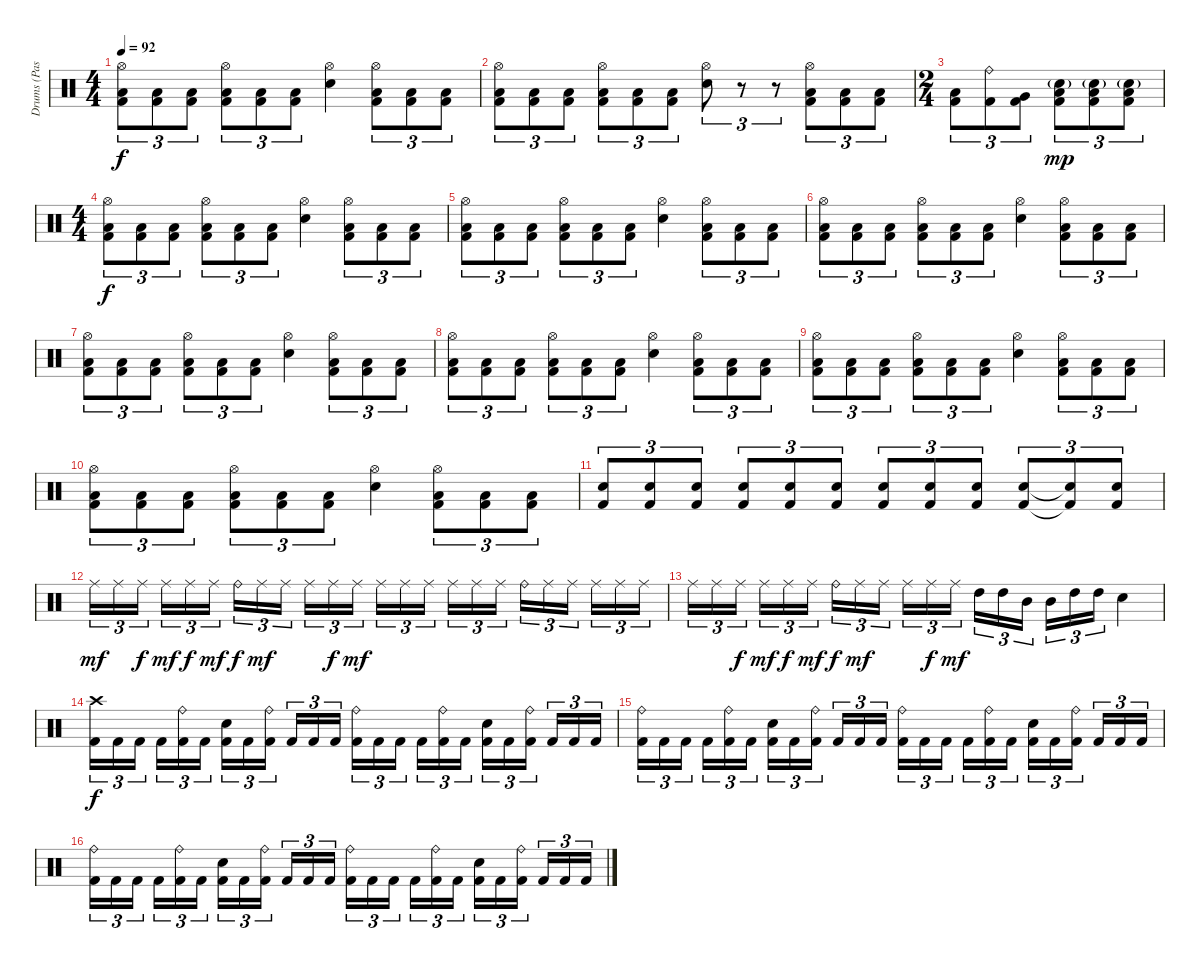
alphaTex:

\track ("Drums (Pasanen)" "Drums (Pas") {instrument percussion}
\staff {score}
\articulation defaults
\ts (4 4)
\tempo 92
\clef neutral
\ks c
("Hi-Hat (open)" "Low Tom (hit)" "Kick (hit) 2").8{tu (3 2) dy f} ("Low Tom (hit)" "Kick (hit) 2").8{tu (3 2)} ("Low Tom (hit)" "Kick (hit) 2").8{tu (3 2)} ("Hi-Hat (open)" "Low Tom (hit)" "Kick (hit) 2").8{tu (3 2)} ("Low Tom (hit)" "Kick (hit) 2").8{tu (3 2)} ("Low Tom (hit)" "Kick (hit) 2").8{tu (3 2)} ("Hi-Hat (open)" "Electric Snare (hit)").4 ("Hi-Hat (open)" "Low Tom (hit)" "Kick (hit) 2").8{tu (3 2)} ("Low Tom (hit)" "Kick (hit) 2").8{tu (3 2)} ("Low Tom (hit)" "Kick (hit) 2").8{tu (3 2)} |
("Hi-Hat (open)" "Low Tom (hit)" "Kick (hit) 2").8{tu (3 2)} ("Low Tom (hit)" "Kick (hit) 2").8{tu (3 2)} ("Low Tom (hit)" "Kick (hit) 2").8{tu (3 2)} ("Hi-Hat (open)" "Low Tom (hit)" "Kick (hit) 2").8{tu (3 2)} ("Low Tom (hit)" "Kick (hit) 2").8{tu (3 2)} ("Low Tom (hit)" "Kick (hit) 2").8{tu (3 2)} ("Hi-Hat (open)" "Electric Snare (hit)").8{tu (3 2)} r.8{tu (3 2)} r.8{tu (3 2)} ("Hi-Hat (open)" "Low Tom (hit)" "Kick (hit) 2").8{tu (3 2)} ("Low Tom (hit)" "Kick (hit) 2").8{tu (3 2)} ("Low Tom (hit)" "Kick (hit) 2").8{tu (3 2)} |
\ts (2 4)
("Low Tom (hit)" "Kick (hit) 2").8{tu (3 2)} ("Ride (bell)" "Kick (hit) 2").8{tu (3 2)} ("Very Low Tom (hit)" "Kick (hit) 2").8{tu (3 2)} ("Low Tom (hit)" "Electric Snare (hit)"{g} "Kick (hit) 2").8{tu (3 2) dy mp} ("Low Tom (hit)" "Electric Snare (hit)"{g} "Kick (hit) 2").8{tu (3 2)} ("Low Tom (hit)" "Electric Snare (hit)"{g} "Kick (hit) 2").8{tu (3 2)} |
\ts (4 4)
("Hi-Hat (open)" "Low Tom (hit)" "Kick (hit) 2").8{tu (3 2) dy f} ("Low Tom (hit)" "Kick (hit) 2").8{tu (3 2)} ("Low Tom (hit)" "Kick (hit) 2").8{tu (3 2)} ("Hi-Hat (open)" "Low Tom (hit)" "Kick (hit) 2").8{tu (3 2)} ("Low Tom (hit)" "Kick (hit) 2").8{tu (3 2)} ("Low Tom (hit)" "Kick (hit) 2").8{tu (3 2)} ("Hi-Hat (open)" "Electric Snare (hit)").4 ("Hi-Hat (open)" "Low Tom (hit)" "Kick (hit) 2").8{tu (3 2)} ("Low Tom (hit)" "Kick (hit) 2").8{tu (3 2)} ("Low Tom (hit)" "Kick (hit) 2").8{tu (3 2)} |
("Hi-Hat (open)" "Low Tom (hit)" "Kick (hit) 2").8{tu (3 2)} ("Low Tom (hit)" "Kick (hit) 2").8{tu (3 2)} ("Low Tom (hit)" "Kick (hit) 2").8{tu (3 2)} ("Hi-Hat (open)" "Low Tom (hit)" "Kick (hit) 2").8{tu (3 2)} ("Low Tom (hit)" "Kick (hit) 2").8{tu (3 2)} ("Low Tom (hit)" "Kick (hit) 2").8{tu (3 2)} ("Hi-Hat (open)" "Electric Snare (hit)").4 ("Hi-Hat (open)" "Low Tom (hit)" "Kick (hit) 2").8{tu (3 2)} ("Low Tom (hit)" "Kick (hit) 2").8{tu (3 2)} ("Low Tom (hit)" "Kick (hit) 2").8{tu (3 2)} |
("Hi-Hat (open)" "Low Tom (hit)" "Kick (hit) 2").8{tu (3 2)} ("Low Tom (hit)" "Kick (hit) 2").8{tu (3 2)} ("Low Tom (hit)" "Kick (hit) 2").8{tu (3 2)} ("Hi-Hat (open)" "Low Tom (hit)" "Kick (hit) 2").8{tu (3 2)} ("Low Tom (hit)" "Kick (hit) 2").8{tu (3 2)} ("Low Tom (hit)" "Kick (hit) 2").8{tu (3 2)} ("Hi-Hat (open)" "Electric Snare (hit)").4 ("Hi-Hat (open)" "Low Tom (hit)" "Kick (hit) 2").8{tu (3 2)} ("Low Tom (hit)" "Kick (hit) 2").8{tu (3 2)} ("Low Tom (hit)" "Kick (hit) 2").8{tu (3 2)} |
("Hi-Hat (open)" "Low Tom (hit)" "Kick (hit) 2").8{tu (3 2)} ("Low Tom (hit)" "Kick (hit) 2").8{tu (3 2)} ("Low Tom (hit)" "Kick (hit) 2").8{tu (3 2)} ("Hi-Hat (open)" "Low Tom (hit)" "Kick (hit) 2").8{tu (3 2)} ("Low Tom (hit)" "Kick (hit) 2").8{tu (3 2)} ("Low Tom (hit)" "Kick (hit) 2").8{tu (3 2)} ("Hi-Hat (open)" "Electric Snare (hit)").4 ("Hi-Hat (open)" "Low Tom (hit)" "Kick (hit) 2").8{tu (3 2)} ("Low Tom (hit)" "Kick (hit) 2").8{tu (3 2)} ("Low Tom (hit)" "Kick (hit) 2").8{tu (3 2)} |
("Hi-Hat (open)" "Low Tom (hit)" "Kick (hit) 2").8{tu (3 2)} ("Low Tom (hit)" "Kick (hit) 2").8{tu (3 2)} ("Low Tom (hit)" "Kick (hit) 2").8{tu (3 2)} ("Hi-Hat (open)" "Low Tom (hit)" "Kick (hit) 2").8{tu (3 2)} ("Low Tom (hit)" "Kick (hit) 2").8{tu (3 2)} ("Low Tom (hit)" "Kick (hit) 2").8{tu (3 2)} ("Hi-Hat (open)" "Electric Snare (hit)").4 ("Hi-Hat (open)" "Low Tom (hit)" "Kick (hit) 2").8{tu (3 2)} ("Low Tom (hit)" "Kick (hit) 2").8{tu (3 2)} ("Low Tom (hit)" "Kick (hit) 2").8{tu (3 2)} |
("Hi-Hat (open)" "Low Tom (hit)" "Kick (hit) 2").8{tu (3 2)} ("Low Tom (hit)" "Kick (hit) 2").8{tu (3 2)} ("Low Tom (hit)" "Kick (hit) 2").8{tu (3 2)} ("Hi-Hat (open)" "Low Tom (hit)" "Kick (hit) 2").8{tu (3 2)} ("Low Tom (hit)" "Kick (hit) 2").8{tu (3 2)} ("Low Tom (hit)" "Kick (hit) 2").8{tu (3 2)} ("Hi-Hat (open)" "Electric Snare (hit)").4 ("Hi-Hat (open)" "Low Tom (hit)" "Kick (hit) 2").8{tu (3 2)} ("Low Tom (hit)" "Kick (hit) 2").8{tu (3 2)} ("Low Tom (hit)" "Kick (hit) 2").8{tu (3 2)} |
("Hi-Hat (open)" "Low Tom (hit)" "Kick (hit) 2").8{tu (3 2)} ("Low Tom (hit)" "Kick (hit) 2").8{tu (3 2)} ("Low Tom (hit)" "Kick (hit) 2").8{tu (3 2)} ("Hi-Hat (open)" "Low Tom (hit)" "Kick (hit) 2").8{tu (3 2)} ("Low Tom (hit)" "Kick (hit) 2").8{tu (3 2)} ("Low Tom (hit)" "Kick (hit) 2").8{tu (3 2)} ("Hi-Hat (open)" "Electric Snare (hit)").4 ("Hi-Hat (open)" "Low Tom (hit)" "Kick (hit) 2").8{tu (3 2)} ("Low Tom (hit)" "Kick (hit) 2").8{tu (3 2)} ("Low Tom (hit)" "Kick (hit) 2").8{tu (3 2)} |
("Electric Snare (hit)" "Kick (hit) 2").8{tu (3 2)} ("Electric Snare (hit)" "Kick (hit) 2").8{tu (3 2)} ("Electric Snare (hit)" "Kick (hit) 2").8{tu (3 2)} ("Electric Snare (hit)" "Kick (hit) 2").8{tu (3 2)} ("Electric Snare (hit)" "Kick (hit) 2").8{tu (3 2)} ("Electric Snare (hit)" "Kick (hit) 2").8{tu (3 2)} ("Electric Snare (hit)" "Kick (hit) 2").8{tu (3 2)} ("Electric Snare (hit)" "Kick (hit) 2").8{tu (3 2)} ("Electric Snare (hit)" "Kick (hit) 2").8{tu (3 2)} ("Electric Snare (hit)" "Kick (hit) 2").8{tu (3 2)} ("Snare (hit)"{t} "Kick (hit) 2"{t}).8{tu (3 2)} ("Electric Snare (hit)" "Kick (hit) 2").8{tu (3 2)} |
"Ride (middle)".16{tu (3 2) dy mf} "Ride (middle)".16{tu (3 2)} "Ride (middle)".16{tu (3 2) dy f beam splitsecondary} "Ride (middle)".16{tu (3 2) dy mf} "Ride (middle)".16{tu (3 2) dy f} "Ride (middle)".16{tu (3 2) dy mf} "Ride (bell)".16{tu (3 2) dy f} "Ride (middle)".16{tu (3 2) dy mf} "Ride (middle)".16{tu (3 2) beam splitsecondary} "Ride (middle)".16{tu (3 2)} "Ride (middle)".16{tu (3 2) dy f} "Ride (middle)".16{tu (3 2) dy mf} "Ride (middle)".16{tu (3 2)} "Ride (middle)".16{tu (3 2)} "Ride (middle)".16{tu (3 2) beam splitsecondary} "Ride (middle)".16{tu (3 2)} "Ride (middle)".16{tu (3 2)} "Ride (middle)".16{tu (3 2)} "Ride (bell)".16{tu (3 2)} "Ride (middle)".16{tu (3 2)} "Ride (middle)".16{tu (3 2) beam splitsecondary} "Ride (middle)".16{tu (3 2)} "Ride (middle)".16{tu (3 2)} "Ride (middle)".16{tu (3 2)} |
"Ride (middle)".16{tu (3 2)} "Ride (middle)".16{tu (3 2)} "Ride (middle)".16{tu (3 2) dy f beam splitsecondary} "Ride (middle)".16{tu (3 2) dy mf} "Ride (middle)".16{tu (3 2) dy f} "Ride (middle)".16{tu (3 2) dy mf} "Ride (bell)".16{tu (3 2) dy f} "Ride (middle)".16{tu (3 2) dy mf} "Ride (middle)".16{tu (3 2) beam splitsecondary} "Ride (middle)".16{tu (3 2)} "Ride (middle)".16{tu (3 2) dy f} "Ride (middle)".16{tu (3 2) dy mf} "High Tom (hit)".16{tu (3 2)} "High Tom (hit)".16{tu (3 2)} "Mid Tom (hit)".16{tu (3 2) beam splitsecondary} "Mid Tom (hit)".16{tu (3 2)} "High Tom (hit)".16{tu (3 2)} "High Tom (hit)".16{tu (3 2)} "Electric Snare (hit)".4 |
("Crash high (hit)" "Kick (hit) 2").16{tu (3 2) dy f} "Kick (hit) 2".16{tu (3 2)} "Kick (hit) 2".16{tu (3 2) beam splitsecondary} "Kick (hit) 2".16{tu (3 2)} ("Ride (bell)" "Kick (hit) 2").16{tu (3 2)} "Kick (hit) 2".16{tu (3 2)} ("Electric Snare (hit)" "Kick (hit) 2").16{tu (3 2)} "Kick (hit) 2".16{tu (3 2)} ("Ride (bell)" "Kick (hit) 2").16{tu (3 2) beam splitsecondary} "Kick (hit) 2".16{tu (3 2)} "Kick (hit) 2".16{tu (3 2)} "Kick (hit) 2".16{tu (3 2)} ("Ride (bell)" "Kick (hit) 2").16{tu (3 2)} "Kick (hit) 2".16{tu (3 2)} "Kick (hit) 2".16{tu (3 2) beam splitsecondary} "Kick (hit) 2".16{tu (3 2)} ("Ride (bell)" "Kick (hit) 2").16{tu (3 2)} "Kick (hit) 2".16{tu (3 2)} ("Electric Snare (hit)" "Kick (hit) 2").16{tu (3 2)} "Kick (hit) 2".16{tu (3 2)} ("Ride (bell)" "Kick (hit) 2").16{tu (3 2) beam splitsecondary} "Kick (hit) 2".16{tu (3 2)} "Kick (hit) 2".16{tu (3 2)} "Kick (hit) 2".16{tu (3 2)} |
("Ride (bell)" "Kick (hit) 2").16{tu (3 2)} "Kick (hit) 2".16{tu (3 2)} "Kick (hit) 2".16{tu (3 2) beam splitsecondary} "Kick (hit) 2".16{tu (3 2)} ("Ride (bell)" "Kick (hit) 2").16{tu (3 2)} "Kick (hit) 2".16{tu (3 2)} ("Electric Snare (hit)" "Kick (hit) 2").16{tu (3 2)} "Kick (hit) 2".16{tu (3 2)} ("Ride (bell)" "Kick (hit) 2").16{tu (3 2) beam splitsecondary} "Kick (hit) 2".16{tu (3 2)} "Kick (hit) 2".16{tu (3 2)} "Kick (hit) 2".16{tu (3 2)} ("Ride (bell)" "Kick (hit) 2").16{tu (3 2)} "Kick (hit) 2".16{tu (3 2)} "Kick (hit) 2".16{tu (3 2) beam splitsecondary} "Kick (hit) 2".16{tu (3 2)} ("Ride (bell)" "Kick (hit) 2").16{tu (3 2)} "Kick (hit) 2".16{tu (3 2)} ("Electric Snare (hit)" "Kick (hit) 2").16{tu (3 2)} "Kick (hit) 2".16{tu (3 2)} ("Ride (bell)" "Kick (hit) 2").16{tu (3 2) beam splitsecondary} "Kick (hit) 2".16{tu (3 2)} "Kick (hit) 2".16{tu (3 2)} "Kick (hit) 2".16{tu (3 2)} |
("Ride (bell)" "Kick (hit) 2").16{tu (3 2)} "Kick (hit) 2".16{tu (3 2)} "Kick (hit) 2".16{tu (3 2) beam splitsecondary} "Kick (hit) 2".16{tu (3 2)} ("Ride (bell)" "Kick (hit) 2").16{tu (3 2)} "Kick (hit) 2".16{tu (3 2)} ("Electric Snare (hit)" "Kick (hit) 2").16{tu (3 2)} "Kick (hit) 2".16{tu (3 2)} ("Ride (bell)" "Kick (hit) 2").16{tu (3 2) beam splitsecondary} "Kick (hit) 2".16{tu (3 2)} "Kick (hit) 2".16{tu (3 2)} "Kick (hit) 2".16{tu (3 2)} ("Ride (bell)" "Kick (hit) 2").16{tu (3 2)} "Kick (hit) 2".16{tu (3 2)} "Kick (hit) 2".16{tu (3 2) beam splitsecondary} "Kick (hit) 2".16{tu (3 2)} ("Ride (bell)" "Kick (hit) 2").16{tu (3 2)} "Kick (hit) 2".16{tu (3 2)} ("Electric Snare (hit)" "Kick (hit) 2").16{tu (3 2)} "Kick (hit) 2".16{tu (3 2)} ("Ride (bell)" "Kick (hit) 2").16{tu (3 2) beam splitsecondary} "Kick (hit) 2".16{tu (3 2)} "Kick (hit) 2".16{tu (3 2)} "Kick (hit) 2".16{tu (3 2)}
